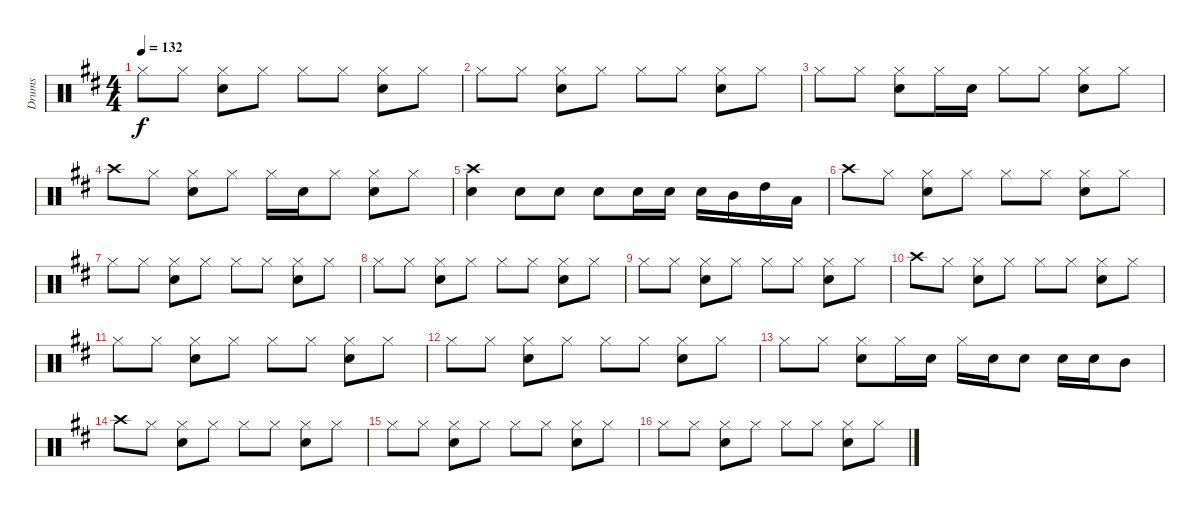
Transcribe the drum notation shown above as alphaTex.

\track ("Drums" "Drums") {instrument percussion}
\staff {score}
\articulation defaults
\ts (4 4)
\tempo 132
\clef neutral
\ks d "Hi-Hat (closed)".8{dy f} "Hi-Hat (closed)".8
("Hi-Hat (closed)" "Snare (hit) 2").8 "Hi-Hat (closed)".8 "Hi-Hat (closed)".8 "Hi-Hat (closed)".8 ("Hi-Hat (closed)" "Snare (hit) 2").8 "Hi-Hat (closed)".8 |
"Hi-Hat (closed)".8 "Hi-Hat (closed)".8 ("Hi-Hat (closed)" "Snare (hit) 2").8 "Hi-Hat (closed)".8 "Hi-Hat (closed)".8 "Hi-Hat (closed)".8 ("Hi-Hat (closed)" "Snare (hit) 2").8 "Hi-Hat (closed)".8 |
"Hi-Hat (closed)".8 "Hi-Hat (closed)".8 ("Hi-Hat (closed)" "Snare (hit) 2").8 "Hi-Hat (closed)".16 "Snare (hit) 2".16 "Hi-Hat (closed)".8 "Hi-Hat (closed)".8 ("Hi-Hat (closed)" "Snare (hit) 2").8 "Hi-Hat (closed)".8 |
"Crash high (hit)".8 "Hi-Hat (closed)".8 ("Hi-Hat (closed)" "Snare (hit) 2").8 "Hi-Hat (closed)".8 "Hi-Hat (closed)".16 "Snare (hit) 2".16 "Hi-Hat (closed)".8 ("Hi-Hat (closed)" "Snare (hit) 2").8 "Hi-Hat (closed)".8 |
("Crash high (hit)" "Snare (hit) 2").4 "Snare (hit) 2".8 "Snare (hit) 2".8 "Snare (hit) 2".8 "Snare (hit) 2".16 "Snare (hit) 2".16 "Snare (hit) 2".16 "Mid Tom (hit)".16 "High Tom (hit)".16 "Low Tom (hit)".16 |
"Crash high (hit)".8 "Hi-Hat (closed)".8 ("Hi-Hat (closed)" "Snare (hit) 2").8 "Hi-Hat (closed)".8 "Hi-Hat (closed)".8 "Hi-Hat (closed)".8 ("Hi-Hat (closed)" "Snare (hit) 2").8 "Hi-Hat (closed)".8 |
"Hi-Hat (closed)".8 "Hi-Hat (closed)".8 ("Hi-Hat (closed)" "Snare (hit) 2").8 "Hi-Hat (closed)".8 "Hi-Hat (closed)".8 "Hi-Hat (closed)".8 ("Hi-Hat (closed)" "Snare (hit) 2").8 "Hi-Hat (closed)".8 |
"Hi-Hat (closed)".8 "Hi-Hat (closed)".8 ("Hi-Hat (closed)" "Snare (hit) 2").8 "Hi-Hat (closed)".8 "Hi-Hat (closed)".8 "Hi-Hat (closed)".8 ("Hi-Hat (closed)" "Snare (hit) 2").8 "Hi-Hat (closed)".8 |
"Hi-Hat (closed)".8 "Hi-Hat (closed)".8 ("Hi-Hat (closed)" "Snare (hit) 2").8 "Hi-Hat (closed)".8 "Hi-Hat (closed)".8 "Hi-Hat (closed)".8 ("Hi-Hat (closed)" "Snare (hit) 2").8 "Hi-Hat (closed)".8 |
"Crash high (hit)".8 "Hi-Hat (closed)".8 ("Hi-Hat (closed)" "Snare (hit) 2").8 "Hi-Hat (closed)".8 "Hi-Hat (closed)".8 "Hi-Hat (closed)".8 ("Hi-Hat (closed)" "Snare (hit) 2").8 "Hi-Hat (closed)".8 |
"Hi-Hat (closed)".8 "Hi-Hat (closed)".8 ("Hi-Hat (closed)" "Snare (hit) 2").8 "Hi-Hat (closed)".8 "Hi-Hat (closed)".8 "Hi-Hat (closed)".8 ("Hi-Hat (closed)" "Snare (hit) 2").8 "Hi-Hat (closed)".8 |
"Hi-Hat (closed)".8 "Hi-Hat (closed)".8 ("Hi-Hat (closed)" "Snare (hit) 2").8 "Hi-Hat (closed)".8 "Hi-Hat (closed)".8 "Hi-Hat (closed)".8 ("Hi-Hat (closed)" "Snare (hit) 2").8 "Hi-Hat (closed)".8 |
"Hi-Hat (closed)".8 "Hi-Hat (closed)".8 ("Hi-Hat (closed)" "Snare (hit) 2").8 "Hi-Hat (closed)".16 "Snare (hit) 2".16 "Hi-Hat (closed)".16 "Snare (hit) 2".16 "Snare (hit) 2".8 "Snare (hit) 2".16 "Snare (hit) 2".16 "Mid Tom (hit)".8 |
"Crash high (hit)".8 "Hi-Hat (closed)".8 ("Hi-Hat (closed)" "Snare (hit) 2").8 "Hi-Hat (closed)".8 "Hi-Hat (closed)".8 "Hi-Hat (closed)".8 ("Hi-Hat (closed)" "Snare (hit) 2").8 "Hi-Hat (closed)".8 |
"Hi-Hat (closed)".8 "Hi-Hat (closed)".8 ("Hi-Hat (closed)" "Snare (hit) 2").8 "Hi-Hat (closed)".8 "Hi-Hat (closed)".8 "Hi-Hat (closed)".8 ("Hi-Hat (closed)" "Snare (hit) 2").8 "Hi-Hat (closed)".8 |
"Hi-Hat (closed)".8 "Hi-Hat (closed)".8 ("Hi-Hat (closed)" "Snare (hit) 2").8 "Hi-Hat (closed)".8 "Hi-Hat (closed)".8 "Hi-Hat (closed)".8 ("Hi-Hat (closed)" "Snare (hit) 2").8 "Hi-Hat (closed)".8
